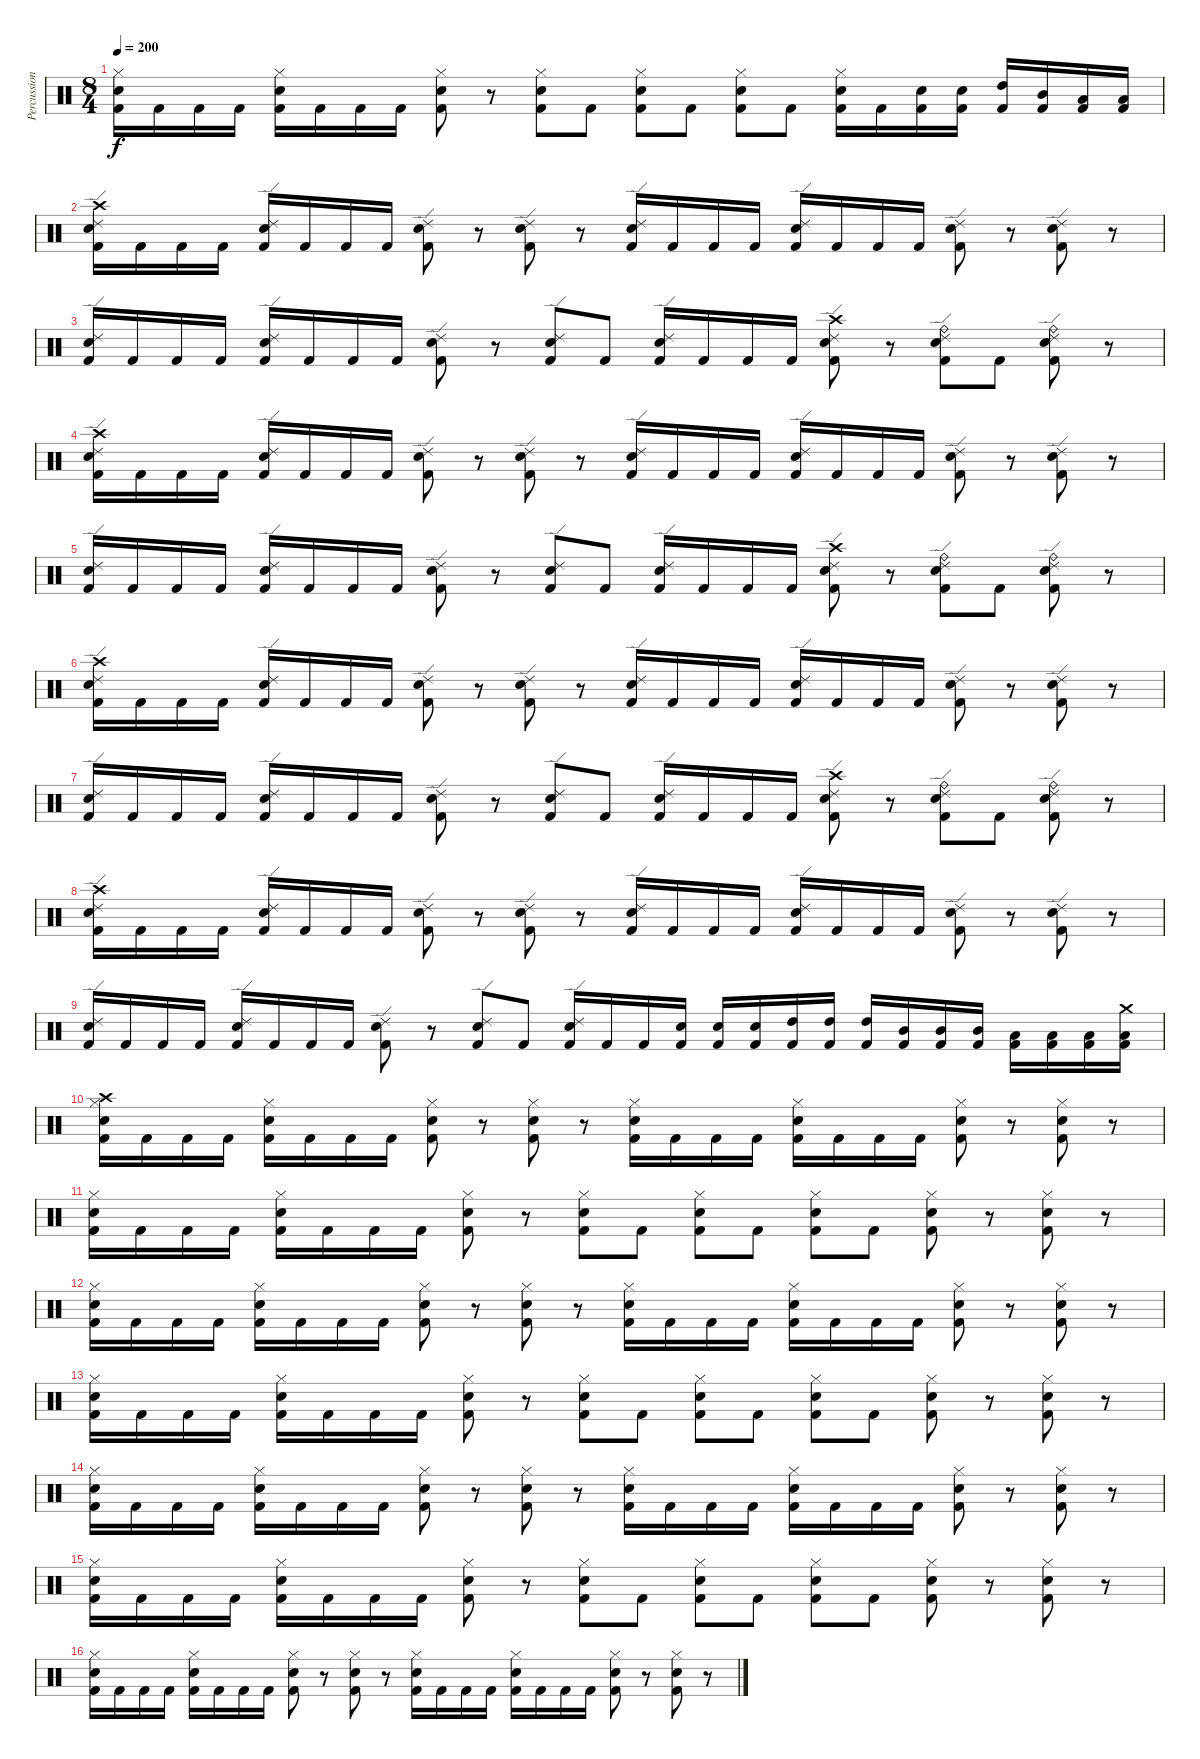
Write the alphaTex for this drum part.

\track ("Percussion" "Percussion") {instrument percussion}
\staff {score}
\articulation defaults
\ts (8 4)
\tempo 200
\clef neutral
\ks c
("Hi-Hat (closed)" "Electric Snare (hit)" "Kick (hit) 2").16{dy f} "Kick (hit) 2".16 "Kick (hit) 2".16 "Kick (hit) 2".16 ("Hi-Hat (closed)" "Electric Snare (hit)" "Kick (hit) 2").16 "Kick (hit) 2".16 "Kick (hit) 2".16 "Kick (hit) 2".16 ("Hi-Hat (closed)" "Electric Snare (hit)" "Kick (hit) 2").8 r.8 ("Hi-Hat (closed)" "Electric Snare (hit)" "Kick (hit) 2").8 "Kick (hit) 2".8 ("Hi-Hat (closed)" "Electric Snare (hit)" "Kick (hit) 2").8 "Kick (hit) 2".8 ("Hi-Hat (closed)" "Electric Snare (hit)" "Kick (hit) 2").8 "Kick (hit) 2".8 ("Hi-Hat (closed)" "Electric Snare (hit)" "Kick (hit) 2").16 "Kick (hit) 2".16 ("Electric Snare (hit)" "Kick (hit) 2").16 ("Electric Snare (hit)" "Kick (hit) 2").16 ("High Tom (hit)" "Kick (hit) 2").16 ("Mid Tom (hit)" "Kick (hit) 2").16 ("Low Tom (hit)" "Kick (hit) 2").16 ("Low Tom (hit)" "Kick (hit) 2").16 |
("Ride (edge) 2" "Crash high (hit)" "Electric Snare (hit)" "Kick (hit) 2").16 "Kick (hit) 2".16 "Kick (hit) 2".16 "Kick (hit) 2".16 ("Ride (edge) 2" "Electric Snare (hit)" "Kick (hit) 2").16 "Kick (hit) 2".16 "Kick (hit) 2".16 "Kick (hit) 2".16 ("Ride (edge) 2" "Electric Snare (hit)" "Kick (hit) 2").8 r.8 ("Ride (edge) 2" "Electric Snare (hit)" "Kick (hit) 2").8 r.8 ("Ride (edge) 2" "Electric Snare (hit)" "Kick (hit) 2").16 "Kick (hit) 2".16 "Kick (hit) 2".16 "Kick (hit) 2".16 ("Ride (edge) 2" "Electric Snare (hit)" "Kick (hit) 2").16 "Kick (hit) 2".16 "Kick (hit) 2".16 "Kick (hit) 2".16 ("Ride (edge) 2" "Electric Snare (hit)" "Kick (hit) 2").8 r.8 ("Ride (edge) 2" "Electric Snare (hit)" "Kick (hit) 2").8 r.8 |
("Ride (edge) 2" "Electric Snare (hit)" "Kick (hit) 2").16 "Kick (hit) 2".16 "Kick (hit) 2".16 "Kick (hit) 2".16 ("Ride (edge) 2" "Electric Snare (hit)" "Kick (hit) 2").16 "Kick (hit) 2".16 "Kick (hit) 2".16 "Kick (hit) 2".16 ("Ride (edge) 2" "Electric Snare (hit)" "Kick (hit) 2").8 r.8 ("Ride (edge) 2" "Electric Snare (hit)" "Kick (hit) 2").8 "Kick (hit) 2".8 ("Ride (edge) 2" "Electric Snare (hit)" "Kick (hit) 2").16 "Kick (hit) 2".16 "Kick (hit) 2".16 "Kick (hit) 2".16 ("Ride (edge) 2" "Crash high (hit)" "Electric Snare (hit)" "Kick (hit) 2").8 r.8 ("Ride (edge) 2" "Ride (bell)" "Electric Snare (hit)" "Kick (hit) 2").8 "Kick (hit) 2".8 ("Ride (edge) 2" "Ride (bell)" "Electric Snare (hit)" "Kick (hit) 2").8 r.8 |
("Ride (edge) 2" "Crash high (hit)" "Electric Snare (hit)" "Kick (hit) 2").16 "Kick (hit) 2".16 "Kick (hit) 2".16 "Kick (hit) 2".16 ("Ride (edge) 2" "Electric Snare (hit)" "Kick (hit) 2").16 "Kick (hit) 2".16 "Kick (hit) 2".16 "Kick (hit) 2".16 ("Ride (edge) 2" "Electric Snare (hit)" "Kick (hit) 2").8 r.8 ("Ride (edge) 2" "Electric Snare (hit)" "Kick (hit) 2").8 r.8 ("Ride (edge) 2" "Electric Snare (hit)" "Kick (hit) 2").16 "Kick (hit) 2".16 "Kick (hit) 2".16 "Kick (hit) 2".16 ("Ride (edge) 2" "Electric Snare (hit)" "Kick (hit) 2").16 "Kick (hit) 2".16 "Kick (hit) 2".16 "Kick (hit) 2".16 ("Ride (edge) 2" "Electric Snare (hit)" "Kick (hit) 2").8 r.8 ("Ride (edge) 2" "Electric Snare (hit)" "Kick (hit) 2").8 r.8 |
("Ride (edge) 2" "Electric Snare (hit)" "Kick (hit) 2").16 "Kick (hit) 2".16 "Kick (hit) 2".16 "Kick (hit) 2".16 ("Ride (edge) 2" "Electric Snare (hit)" "Kick (hit) 2").16 "Kick (hit) 2".16 "Kick (hit) 2".16 "Kick (hit) 2".16 ("Ride (edge) 2" "Electric Snare (hit)" "Kick (hit) 2").8 r.8 ("Ride (edge) 2" "Electric Snare (hit)" "Kick (hit) 2").8 "Kick (hit) 2".8 ("Ride (edge) 2" "Electric Snare (hit)" "Kick (hit) 2").16 "Kick (hit) 2".16 "Kick (hit) 2".16 "Kick (hit) 2".16 ("Ride (edge) 2" "Crash high (hit)" "Electric Snare (hit)" "Kick (hit) 2").8 r.8 ("Ride (edge) 2" "Ride (bell)" "Electric Snare (hit)" "Kick (hit) 2").8 "Kick (hit) 2".8 ("Ride (edge) 2" "Ride (bell)" "Electric Snare (hit)" "Kick (hit) 2").8 r.8 |
("Ride (edge) 2" "Crash high (hit)" "Electric Snare (hit)" "Kick (hit) 2").16 "Kick (hit) 2".16 "Kick (hit) 2".16 "Kick (hit) 2".16 ("Ride (edge) 2" "Electric Snare (hit)" "Kick (hit) 2").16 "Kick (hit) 2".16 "Kick (hit) 2".16 "Kick (hit) 2".16 ("Ride (edge) 2" "Electric Snare (hit)" "Kick (hit) 2").8 r.8 ("Ride (edge) 2" "Electric Snare (hit)" "Kick (hit) 2").8 r.8 ("Ride (edge) 2" "Electric Snare (hit)" "Kick (hit) 2").16 "Kick (hit) 2".16 "Kick (hit) 2".16 "Kick (hit) 2".16 ("Ride (edge) 2" "Electric Snare (hit)" "Kick (hit) 2").16 "Kick (hit) 2".16 "Kick (hit) 2".16 "Kick (hit) 2".16 ("Ride (edge) 2" "Electric Snare (hit)" "Kick (hit) 2").8 r.8 ("Ride (edge) 2" "Electric Snare (hit)" "Kick (hit) 2").8 r.8 |
("Ride (edge) 2" "Electric Snare (hit)" "Kick (hit) 2").16 "Kick (hit) 2".16 "Kick (hit) 2".16 "Kick (hit) 2".16 ("Ride (edge) 2" "Electric Snare (hit)" "Kick (hit) 2").16 "Kick (hit) 2".16 "Kick (hit) 2".16 "Kick (hit) 2".16 ("Ride (edge) 2" "Electric Snare (hit)" "Kick (hit) 2").8 r.8 ("Ride (edge) 2" "Electric Snare (hit)" "Kick (hit) 2").8 "Kick (hit) 2".8 ("Ride (edge) 2" "Electric Snare (hit)" "Kick (hit) 2").16 "Kick (hit) 2".16 "Kick (hit) 2".16 "Kick (hit) 2".16 ("Ride (edge) 2" "Crash high (hit)" "Electric Snare (hit)" "Kick (hit) 2").8 r.8 ("Ride (edge) 2" "Ride (bell)" "Electric Snare (hit)" "Kick (hit) 2").8 "Kick (hit) 2".8 ("Ride (edge) 2" "Ride (bell)" "Electric Snare (hit)" "Kick (hit) 2").8 r.8 |
("Ride (edge) 2" "Crash high (hit)" "Electric Snare (hit)" "Kick (hit) 2").16 "Kick (hit) 2".16 "Kick (hit) 2".16 "Kick (hit) 2".16 ("Ride (edge) 2" "Electric Snare (hit)" "Kick (hit) 2").16 "Kick (hit) 2".16 "Kick (hit) 2".16 "Kick (hit) 2".16 ("Ride (edge) 2" "Electric Snare (hit)" "Kick (hit) 2").8 r.8 ("Ride (edge) 2" "Electric Snare (hit)" "Kick (hit) 2").8 r.8 ("Ride (edge) 2" "Electric Snare (hit)" "Kick (hit) 2").16 "Kick (hit) 2".16 "Kick (hit) 2".16 "Kick (hit) 2".16 ("Ride (edge) 2" "Electric Snare (hit)" "Kick (hit) 2").16 "Kick (hit) 2".16 "Kick (hit) 2".16 "Kick (hit) 2".16 ("Ride (edge) 2" "Electric Snare (hit)" "Kick (hit) 2").8 r.8 ("Ride (edge) 2" "Electric Snare (hit)" "Kick (hit) 2").8 r.8 |
("Ride (edge) 2" "Electric Snare (hit)" "Kick (hit) 2").16 "Kick (hit) 2".16 "Kick (hit) 2".16 "Kick (hit) 2".16 ("Ride (edge) 2" "Electric Snare (hit)" "Kick (hit) 2").16 "Kick (hit) 2".16 "Kick (hit) 2".16 "Kick (hit) 2".16 ("Ride (edge) 2" "Electric Snare (hit)" "Kick (hit) 2").8 r.8 ("Ride (edge) 2" "Electric Snare (hit)" "Kick (hit) 2").8 "Kick (hit) 2".8 ("Ride (edge) 2" "Electric Snare (hit)" "Kick (hit) 2").16 "Kick (hit) 2".16 "Kick (hit) 2".16 ("Electric Snare (hit)" "Kick (hit) 2").16 ("Electric Snare (hit)" "Kick (hit) 2").16 ("Electric Snare (hit)" "Kick (hit) 2").16 ("High Tom (hit)" "Kick (hit) 2").16 ("High Tom (hit)" "Kick (hit) 2").16 ("High Tom (hit)" "Kick (hit) 2").16 ("Mid Tom (hit)" "Kick (hit) 2").16 ("Mid Tom (hit)" "Kick (hit) 2").16 ("Mid Tom (hit)" "Kick (hit) 2").16 ("Low Tom (hit)" "Kick (hit) 2").16 ("Low Tom (hit)" "Kick (hit) 2").16 ("Low Tom (hit)" "Kick (hit) 2").16 ("Crash medium (hit)" "Low Tom (hit)" "Kick (hit) 2").16 |
("Hi-Hat (closed)" "Crash high (hit)" "Electric Snare (hit)" "Kick (hit) 2").16 "Kick (hit) 2".16 "Kick (hit) 2".16 "Kick (hit) 2".16 ("Hi-Hat (closed)" "Electric Snare (hit)" "Kick (hit) 2").16 "Kick (hit) 2".16 "Kick (hit) 2".16 "Kick (hit) 2".16 ("Hi-Hat (closed)" "Electric Snare (hit)" "Kick (hit) 2").8 r.8 ("Hi-Hat (closed)" "Electric Snare (hit)" "Kick (hit) 2").8 r.8 ("Hi-Hat (closed)" "Electric Snare (hit)" "Kick (hit) 2").16 "Kick (hit) 2".16 "Kick (hit) 2".16 "Kick (hit) 2".16 ("Hi-Hat (closed)" "Electric Snare (hit)" "Kick (hit) 2").16 "Kick (hit) 2".16 "Kick (hit) 2".16 "Kick (hit) 2".16 ("Hi-Hat (closed)" "Electric Snare (hit)" "Kick (hit) 2").8 r.8 ("Hi-Hat (closed)" "Electric Snare (hit)" "Kick (hit) 2").8 r.8 |
("Hi-Hat (closed)" "Electric Snare (hit)" "Kick (hit) 2").16 "Kick (hit) 2".16 "Kick (hit) 2".16 "Kick (hit) 2".16 ("Hi-Hat (closed)" "Electric Snare (hit)" "Kick (hit) 2").16 "Kick (hit) 2".16 "Kick (hit) 2".16 "Kick (hit) 2".16 ("Hi-Hat (closed)" "Electric Snare (hit)" "Kick (hit) 2").8 r.8 ("Hi-Hat (closed)" "Electric Snare (hit)" "Kick (hit) 2").8 "Kick (hit) 2".8 ("Hi-Hat (closed)" "Electric Snare (hit)" "Kick (hit) 2").8 "Kick (hit) 2".8 ("Hi-Hat (closed)" "Electric Snare (hit)" "Kick (hit) 2").8 "Kick (hit) 2".8 ("Hi-Hat (closed)" "Electric Snare (hit)" "Kick (hit) 2").8 r.8 ("Hi-Hat (closed)" "Electric Snare (hit)" "Kick (hit) 2").8 r.8 |
("Hi-Hat (closed)" "Electric Snare (hit)" "Kick (hit) 2").16 "Kick (hit) 2".16 "Kick (hit) 2".16 "Kick (hit) 2".16 ("Hi-Hat (closed)" "Electric Snare (hit)" "Kick (hit) 2").16 "Kick (hit) 2".16 "Kick (hit) 2".16 "Kick (hit) 2".16 ("Hi-Hat (closed)" "Electric Snare (hit)" "Kick (hit) 2").8 r.8 ("Hi-Hat (closed)" "Electric Snare (hit)" "Kick (hit) 2").8 r.8 ("Hi-Hat (closed)" "Electric Snare (hit)" "Kick (hit) 2").16 "Kick (hit) 2".16 "Kick (hit) 2".16 "Kick (hit) 2".16 ("Hi-Hat (closed)" "Electric Snare (hit)" "Kick (hit) 2").16 "Kick (hit) 2".16 "Kick (hit) 2".16 "Kick (hit) 2".16 ("Hi-Hat (closed)" "Electric Snare (hit)" "Kick (hit) 2").8 r.8 ("Hi-Hat (closed)" "Electric Snare (hit)" "Kick (hit) 2").8 r.8 |
("Hi-Hat (closed)" "Electric Snare (hit)" "Kick (hit) 2").16 "Kick (hit) 2".16 "Kick (hit) 2".16 "Kick (hit) 2".16 ("Hi-Hat (closed)" "Electric Snare (hit)" "Kick (hit) 2").16 "Kick (hit) 2".16 "Kick (hit) 2".16 "Kick (hit) 2".16 ("Hi-Hat (closed)" "Electric Snare (hit)" "Kick (hit) 2").8 r.8 ("Hi-Hat (closed)" "Electric Snare (hit)" "Kick (hit) 2").8 "Kick (hit) 2".8 ("Hi-Hat (closed)" "Electric Snare (hit)" "Kick (hit) 2").8 "Kick (hit) 2".8 ("Hi-Hat (closed)" "Electric Snare (hit)" "Kick (hit) 2").8 "Kick (hit) 2".8 ("Hi-Hat (closed)" "Electric Snare (hit)" "Kick (hit) 2").8 r.8 ("Hi-Hat (closed)" "Electric Snare (hit)" "Kick (hit) 2").8 r.8 |
("Hi-Hat (closed)" "Electric Snare (hit)" "Kick (hit) 2").16 "Kick (hit) 2".16 "Kick (hit) 2".16 "Kick (hit) 2".16 ("Hi-Hat (closed)" "Electric Snare (hit)" "Kick (hit) 2").16 "Kick (hit) 2".16 "Kick (hit) 2".16 "Kick (hit) 2".16 ("Hi-Hat (closed)" "Electric Snare (hit)" "Kick (hit) 2").8 r.8 ("Hi-Hat (closed)" "Electric Snare (hit)" "Kick (hit) 2").8 r.8 ("Hi-Hat (closed)" "Electric Snare (hit)" "Kick (hit) 2").16 "Kick (hit) 2".16 "Kick (hit) 2".16 "Kick (hit) 2".16 ("Hi-Hat (closed)" "Electric Snare (hit)" "Kick (hit) 2").16 "Kick (hit) 2".16 "Kick (hit) 2".16 "Kick (hit) 2".16 ("Hi-Hat (closed)" "Electric Snare (hit)" "Kick (hit) 2").8 r.8 ("Hi-Hat (closed)" "Electric Snare (hit)" "Kick (hit) 2").8 r.8 |
("Hi-Hat (closed)" "Electric Snare (hit)" "Kick (hit) 2").16 "Kick (hit) 2".16 "Kick (hit) 2".16 "Kick (hit) 2".16 ("Hi-Hat (closed)" "Electric Snare (hit)" "Kick (hit) 2").16 "Kick (hit) 2".16 "Kick (hit) 2".16 "Kick (hit) 2".16 ("Hi-Hat (closed)" "Electric Snare (hit)" "Kick (hit) 2").8 r.8 ("Hi-Hat (closed)" "Electric Snare (hit)" "Kick (hit) 2").8 "Kick (hit) 2".8 ("Hi-Hat (closed)" "Electric Snare (hit)" "Kick (hit) 2").8 "Kick (hit) 2".8 ("Hi-Hat (closed)" "Electric Snare (hit)" "Kick (hit) 2").8 "Kick (hit) 2".8 ("Hi-Hat (closed)" "Electric Snare (hit)" "Kick (hit) 2").8 r.8 ("Hi-Hat (closed)" "Electric Snare (hit)" "Kick (hit) 2").8 r.8 |
("Hi-Hat (closed)" "Electric Snare (hit)" "Kick (hit) 2").16 "Kick (hit) 2".16 "Kick (hit) 2".16 "Kick (hit) 2".16 ("Hi-Hat (closed)" "Electric Snare (hit)" "Kick (hit) 2").16 "Kick (hit) 2".16 "Kick (hit) 2".16 "Kick (hit) 2".16 ("Hi-Hat (closed)" "Electric Snare (hit)" "Kick (hit) 2").8 r.8 ("Hi-Hat (closed)" "Electric Snare (hit)" "Kick (hit) 2").8 r.8 ("Hi-Hat (closed)" "Electric Snare (hit)" "Kick (hit) 2").16 "Kick (hit) 2".16 "Kick (hit) 2".16 "Kick (hit) 2".16 ("Hi-Hat (closed)" "Electric Snare (hit)" "Kick (hit) 2").16 "Kick (hit) 2".16 "Kick (hit) 2".16 "Kick (hit) 2".16 ("Hi-Hat (closed)" "Electric Snare (hit)" "Kick (hit) 2").8 r.8 ("Hi-Hat (closed)" "Electric Snare (hit)" "Kick (hit) 2").8 r.8
